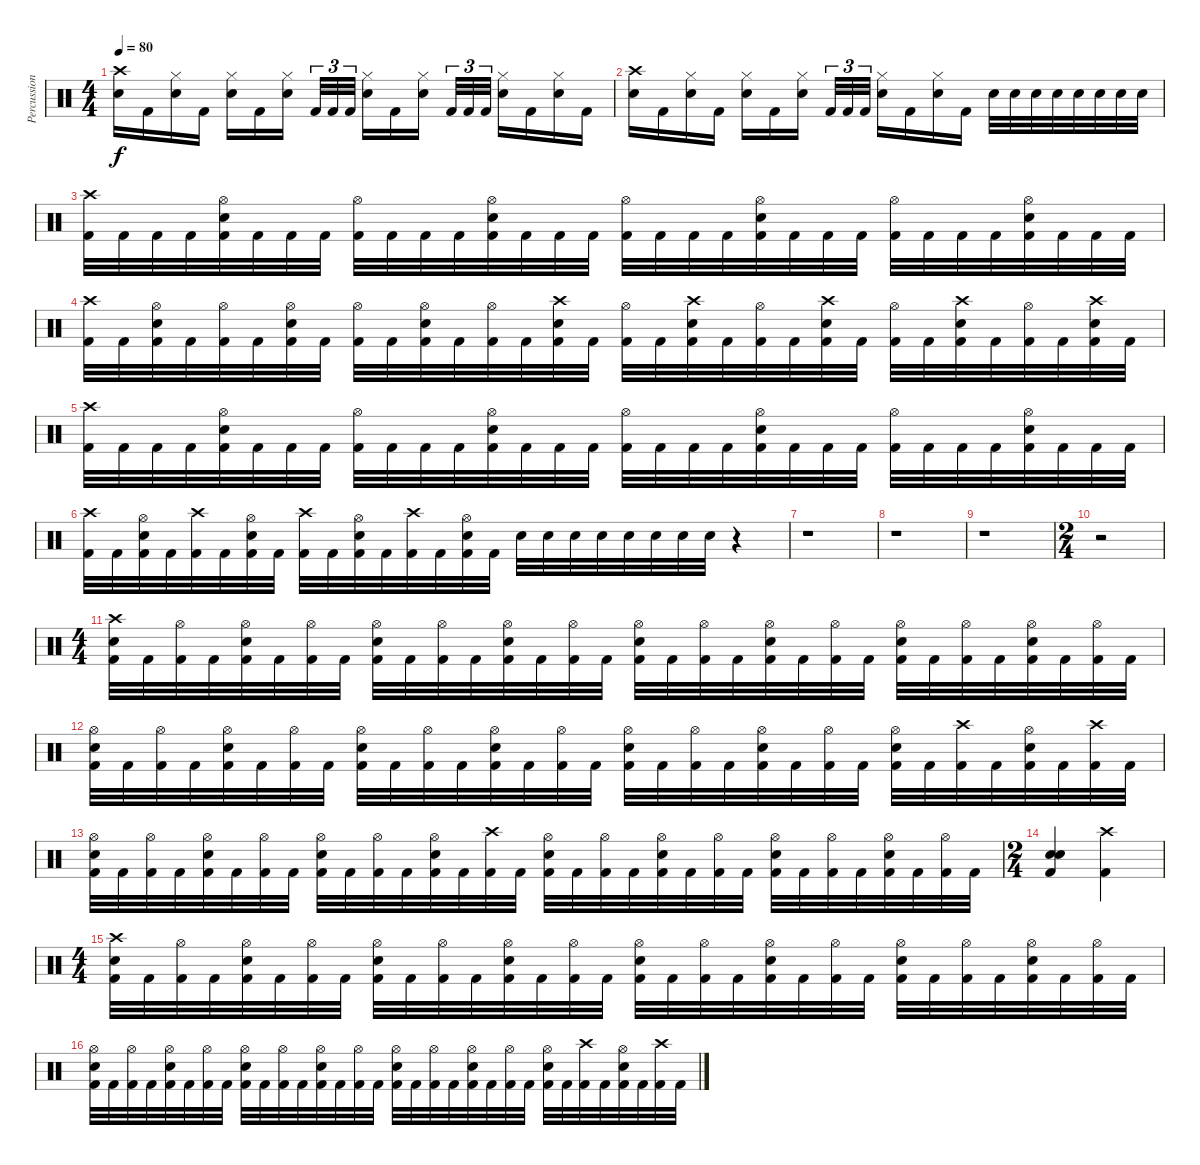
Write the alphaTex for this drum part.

\track ("Percussions" "Percussion") {instrument percussion}
\staff {score}
\articulation defaults
\ts (4 4)
\tempo 80
\clef neutral
\ks c
("Crash high (hit)" "Electric Snare (hit)").16{dy f} "Kick (hit) 2".16 ("Hi-Hat (closed)" "Electric Snare (hit)").16 "Kick (hit) 2".16 ("Hi-Hat (closed)" "Electric Snare (hit)").16 "Kick (hit) 2".16 ("Hi-Hat (closed)" "Electric Snare (hit)").16 "Kick (hit) 2".32{tu (3 2)} "Kick (hit) 2".32{tu (3 2)} "Kick (hit) 2".32{tu (3 2)} ("Hi-Hat (closed)" "Electric Snare (hit)").16 "Kick (hit) 2".16 ("Hi-Hat (closed)" "Electric Snare (hit)").16 "Kick (hit) 2".32{tu (3 2)} "Kick (hit) 2".32{tu (3 2)} "Kick (hit) 2".32{tu (3 2)} ("Hi-Hat (closed)" "Electric Snare (hit)").16 "Kick (hit) 2".16 ("Hi-Hat (closed)" "Electric Snare (hit)").16 "Kick (hit) 2".16 |
("Crash high (hit)" "Electric Snare (hit)").16 "Kick (hit) 2".16 ("Hi-Hat (closed)" "Electric Snare (hit)").16 "Kick (hit) 2".16 ("Hi-Hat (closed)" "Electric Snare (hit)").16 "Kick (hit) 2".16 ("Hi-Hat (closed)" "Electric Snare (hit)").16 "Kick (hit) 2".32{tu (3 2)} "Kick (hit) 2".32{tu (3 2)} "Kick (hit) 2".32{tu (3 2)} ("Hi-Hat (closed)" "Electric Snare (hit)").16 "Kick (hit) 2".16 ("Hi-Hat (closed)" "Electric Snare (hit)").16 "Kick (hit) 2".16 "Electric Snare (hit)".32 "Electric Snare (hit)".32 "Electric Snare (hit)".32 "Electric Snare (hit)".32 "Electric Snare (hit)".32 "Electric Snare (hit)".32 "Electric Snare (hit)".32 "Electric Snare (hit)".32 |
("Crash high (hit)" "Kick (hit) 2").32 "Kick (hit) 2".32 "Kick (hit) 2".32 "Kick (hit) 2".32 ("Hi-Hat (open)" "Electric Snare (hit)" "Kick (hit) 2").32 "Kick (hit) 2".32 "Kick (hit) 2".32 "Kick (hit) 2".32 ("Hi-Hat (open)" "Kick (hit) 2").32 "Kick (hit) 2".32 "Kick (hit) 2".32 "Kick (hit) 2".32 ("Hi-Hat (open)" "Electric Snare (hit)" "Kick (hit) 2").32 "Kick (hit) 2".32 "Kick (hit) 2".32 "Kick (hit) 2".32 ("Hi-Hat (open)" "Kick (hit) 2").32 "Kick (hit) 2".32 "Kick (hit) 2".32 "Kick (hit) 2".32 ("Hi-Hat (open)" "Electric Snare (hit)" "Kick (hit) 2").32 "Kick (hit) 2".32 "Kick (hit) 2".32 "Kick (hit) 2".32 ("Hi-Hat (open)" "Kick (hit) 2").32 "Kick (hit) 2".32 "Kick (hit) 2".32 "Kick (hit) 2".32 ("Hi-Hat (open)" "Electric Snare (hit)" "Kick (hit) 2").32 "Kick (hit) 2".32 "Kick (hit) 2".32 "Kick (hit) 2".32 |
("Crash high (hit)" "Kick (hit) 2").32 "Kick (hit) 2".32 ("Hi-Hat (open)" "Electric Snare (hit)" "Kick (hit) 2").32 "Kick (hit) 2".32 ("Hi-Hat (open)" "Kick (hit) 2").32 "Kick (hit) 2".32 ("Hi-Hat (open)" "Electric Snare (hit)" "Kick (hit) 2").32 "Kick (hit) 2".32 ("Hi-Hat (open)" "Kick (hit) 2").32 "Kick (hit) 2".32 ("Hi-Hat (open)" "Electric Snare (hit)" "Kick (hit) 2").32 "Kick (hit) 2".32 ("Hi-Hat (open)" "Kick (hit) 2").32 "Kick (hit) 2".32 ("Crash high (hit)" "Electric Snare (hit)" "Kick (hit) 2").32 "Kick (hit) 2".32 ("Hi-Hat (open)" "Kick (hit) 2").32 "Kick (hit) 2".32 ("Crash high (hit)" "Electric Snare (hit)" "Kick (hit) 2").32 "Kick (hit) 2".32 ("Hi-Hat (open)" "Kick (hit) 2").32 "Kick (hit) 2".32 ("Crash high (hit)" "Electric Snare (hit)" "Kick (hit) 2").32 "Kick (hit) 2".32 ("Hi-Hat (open)" "Kick (hit) 2").32 "Kick (hit) 2".32 ("Crash high (hit)" "Electric Snare (hit)" "Kick (hit) 2").32 "Kick (hit) 2".32 ("Hi-Hat (open)" "Kick (hit) 2").32 "Kick (hit) 2".32 ("Crash high (hit)" "Electric Snare (hit)" "Kick (hit) 2").32 "Kick (hit) 2".32 |
("Crash high (hit)" "Kick (hit) 2").32 "Kick (hit) 2".32 "Kick (hit) 2".32 "Kick (hit) 2".32 ("Hi-Hat (open)" "Electric Snare (hit)" "Kick (hit) 2").32 "Kick (hit) 2".32 "Kick (hit) 2".32 "Kick (hit) 2".32 ("Hi-Hat (open)" "Kick (hit) 2").32 "Kick (hit) 2".32 "Kick (hit) 2".32 "Kick (hit) 2".32 ("Hi-Hat (open)" "Electric Snare (hit)" "Kick (hit) 2").32 "Kick (hit) 2".32 "Kick (hit) 2".32 "Kick (hit) 2".32 ("Hi-Hat (open)" "Kick (hit) 2").32 "Kick (hit) 2".32 "Kick (hit) 2".32 "Kick (hit) 2".32 ("Hi-Hat (open)" "Electric Snare (hit)" "Kick (hit) 2").32 "Kick (hit) 2".32 "Kick (hit) 2".32 "Kick (hit) 2".32 ("Hi-Hat (open)" "Kick (hit) 2").32 "Kick (hit) 2".32 "Kick (hit) 2".32 "Kick (hit) 2".32 ("Hi-Hat (open)" "Electric Snare (hit)" "Kick (hit) 2").32 "Kick (hit) 2".32 "Kick (hit) 2".32 "Kick (hit) 2".32 |
("Crash high (hit)" "Kick (hit) 2").32 "Kick (hit) 2".32 ("Hi-Hat (open)" "Electric Snare (hit)" "Kick (hit) 2").32 "Kick (hit) 2".32 ("Crash high (hit)" "Kick (hit) 2").32 "Kick (hit) 2".32 ("Hi-Hat (open)" "Electric Snare (hit)" "Kick (hit) 2").32 "Kick (hit) 2".32 ("Crash high (hit)" "Kick (hit) 2").32 "Kick (hit) 2".32 ("Hi-Hat (open)" "Electric Snare (hit)" "Kick (hit) 2").32 "Kick (hit) 2".32 ("Crash high (hit)" "Kick (hit) 2").32 "Kick (hit) 2".32 ("Hi-Hat (open)" "Electric Snare (hit)" "Kick (hit) 2").32 "Kick (hit) 2".32 "Electric Snare (hit)".32 "Electric Snare (hit)".32 "Electric Snare (hit)".32 "Electric Snare (hit)".32 "Electric Snare (hit)".32 "Electric Snare (hit)".32 "Electric Snare (hit)".32 "Electric Snare (hit)".32 r.4 |
r.1 |
r.1 |
r.1 |
\ts (2 4)
r.2 |
\ts (4 4)
("Crash high (hit)" "Electric Snare (hit)" "Kick (hit) 2").32 "Kick (hit) 2".32 ("Hi-Hat (open)" "Kick (hit) 2").32 "Kick (hit) 2".32 ("Hi-Hat (open)" "Electric Snare (hit)" "Kick (hit) 2").32 "Kick (hit) 2".32 ("Hi-Hat (open)" "Kick (hit) 2").32 "Kick (hit) 2".32 ("Hi-Hat (open)" "Electric Snare (hit)" "Kick (hit) 2").32 "Kick (hit) 2".32 ("Hi-Hat (open)" "Kick (hit) 2").32 "Kick (hit) 2".32 ("Hi-Hat (open)" "Electric Snare (hit)" "Kick (hit) 2").32 "Kick (hit) 2".32 ("Hi-Hat (open)" "Kick (hit) 2").32 "Kick (hit) 2".32 ("Hi-Hat (open)" "Electric Snare (hit)" "Kick (hit) 2").32 "Kick (hit) 2".32 ("Hi-Hat (open)" "Kick (hit) 2").32 "Kick (hit) 2".32 ("Hi-Hat (open)" "Electric Snare (hit)" "Kick (hit) 2").32 "Kick (hit) 2".32 ("Hi-Hat (open)" "Kick (hit) 2").32 "Kick (hit) 2".32 ("Hi-Hat (open)" "Electric Snare (hit)" "Kick (hit) 2").32 "Kick (hit) 2".32 ("Hi-Hat (open)" "Kick (hit) 2").32 "Kick (hit) 2".32 ("Hi-Hat (open)" "Electric Snare (hit)" "Kick (hit) 2").32 "Kick (hit) 2".32 ("Hi-Hat (open)" "Kick (hit) 2").32 "Kick (hit) 2".32 |
("Hi-Hat (open)" "Electric Snare (hit)" "Kick (hit) 2").32 "Kick (hit) 2".32 ("Hi-Hat (open)" "Kick (hit) 2").32 "Kick (hit) 2".32 ("Hi-Hat (open)" "Electric Snare (hit)" "Kick (hit) 2").32 "Kick (hit) 2".32 ("Hi-Hat (open)" "Kick (hit) 2").32 "Kick (hit) 2".32 ("Hi-Hat (open)" "Electric Snare (hit)" "Kick (hit) 2").32 "Kick (hit) 2".32 ("Hi-Hat (open)" "Kick (hit) 2").32 "Kick (hit) 2".32 ("Hi-Hat (open)" "Electric Snare (hit)" "Kick (hit) 2").32 "Kick (hit) 2".32 ("Hi-Hat (open)" "Kick (hit) 2").32 "Kick (hit) 2".32 ("Hi-Hat (open)" "Electric Snare (hit)" "Kick (hit) 2").32 "Kick (hit) 2".32 ("Hi-Hat (open)" "Kick (hit) 2").32 "Kick (hit) 2".32 ("Hi-Hat (open)" "Electric Snare (hit)" "Kick (hit) 2").32 "Kick (hit) 2".32 ("Hi-Hat (open)" "Kick (hit) 2").32 "Kick (hit) 2".32 ("Hi-Hat (open)" "Electric Snare (hit)" "Kick (hit) 2").32 "Kick (hit) 2".32 ("Crash high (hit)" "Kick (hit) 2").32 "Kick (hit) 2".32 ("Hi-Hat (open)" "Electric Snare (hit)" "Kick (hit) 2").32 "Kick (hit) 2".32 ("Crash high (hit)" "Kick (hit) 2").32 "Kick (hit) 2".32 |
("Hi-Hat (open)" "Electric Snare (hit)" "Kick (hit) 2").32 "Kick (hit) 2".32 ("Hi-Hat (open)" "Kick (hit) 2").32 "Kick (hit) 2".32 ("Hi-Hat (open)" "Electric Snare (hit)" "Kick (hit) 2").32 "Kick (hit) 2".32 ("Hi-Hat (open)" "Kick (hit) 2").32 "Kick (hit) 2".32 ("Hi-Hat (open)" "Electric Snare (hit)" "Kick (hit) 2").32 "Kick (hit) 2".32 ("Hi-Hat (open)" "Kick (hit) 2").32 "Kick (hit) 2".32 ("Hi-Hat (open)" "Electric Snare (hit)" "Kick (hit) 2").32 "Kick (hit) 2".32 ("Crash high (hit)" "Kick (hit) 2").32 "Kick (hit) 2".32 ("Hi-Hat (open)" "Electric Snare (hit)" "Kick (hit) 2").32 "Kick (hit) 2".32 ("Hi-Hat (open)" "Kick (hit) 2").32 "Kick (hit) 2".32 ("Hi-Hat (open)" "Electric Snare (hit)" "Kick (hit) 2").32 "Kick (hit) 2".32 ("Hi-Hat (open)" "Kick (hit) 2").32 "Kick (hit) 2".32 ("Hi-Hat (open)" "Electric Snare (hit)" "Kick (hit) 2").32 "Kick (hit) 2".32 ("Hi-Hat (open)" "Kick (hit) 2").32 "Kick (hit) 2".32 ("Hi-Hat (open)" "Electric Snare (hit)" "Kick (hit) 2").32 "Kick (hit) 2".32 ("Hi-Hat (open)" "Kick (hit) 2").32 "Kick (hit) 2".32 |
\ts (2 4)
("Electric Snare (hit)" "Electric Snare (hit)" "Kick (hit) 2").4 ("Crash high (hit)" "Kick (hit) 2").4 |
\ts (4 4)
("Crash high (hit)" "Electric Snare (hit)" "Kick (hit) 2").32 "Kick (hit) 2".32 ("Hi-Hat (open)" "Kick (hit) 2").32 "Kick (hit) 2".32 ("Hi-Hat (open)" "Electric Snare (hit)" "Kick (hit) 2").32 "Kick (hit) 2".32 ("Hi-Hat (open)" "Kick (hit) 2").32 "Kick (hit) 2".32 ("Hi-Hat (open)" "Electric Snare (hit)" "Kick (hit) 2").32 "Kick (hit) 2".32 ("Hi-Hat (open)" "Kick (hit) 2").32 "Kick (hit) 2".32 ("Hi-Hat (open)" "Electric Snare (hit)" "Kick (hit) 2").32 "Kick (hit) 2".32 ("Hi-Hat (open)" "Kick (hit) 2").32 "Kick (hit) 2".32 ("Hi-Hat (open)" "Electric Snare (hit)" "Kick (hit) 2").32 "Kick (hit) 2".32 ("Hi-Hat (open)" "Kick (hit) 2").32 "Kick (hit) 2".32 ("Hi-Hat (open)" "Electric Snare (hit)" "Kick (hit) 2").32 "Kick (hit) 2".32 ("Hi-Hat (open)" "Kick (hit) 2").32 "Kick (hit) 2".32 ("Hi-Hat (open)" "Electric Snare (hit)" "Kick (hit) 2").32 "Kick (hit) 2".32 ("Hi-Hat (open)" "Kick (hit) 2").32 "Kick (hit) 2".32 ("Hi-Hat (open)" "Electric Snare (hit)" "Kick (hit) 2").32 "Kick (hit) 2".32 ("Hi-Hat (open)" "Kick (hit) 2").32 "Kick (hit) 2".32 |
("Hi-Hat (open)" "Electric Snare (hit)" "Kick (hit) 2").32 "Kick (hit) 2".32 ("Hi-Hat (open)" "Kick (hit) 2").32 "Kick (hit) 2".32 ("Hi-Hat (open)" "Electric Snare (hit)" "Kick (hit) 2").32 "Kick (hit) 2".32 ("Hi-Hat (open)" "Kick (hit) 2").32 "Kick (hit) 2".32 ("Hi-Hat (open)" "Electric Snare (hit)" "Kick (hit) 2").32 "Kick (hit) 2".32 ("Hi-Hat (open)" "Kick (hit) 2").32 "Kick (hit) 2".32 ("Hi-Hat (open)" "Electric Snare (hit)" "Kick (hit) 2").32 "Kick (hit) 2".32 ("Hi-Hat (open)" "Kick (hit) 2").32 "Kick (hit) 2".32 ("Hi-Hat (open)" "Electric Snare (hit)" "Kick (hit) 2").32 "Kick (hit) 2".32 ("Hi-Hat (open)" "Kick (hit) 2").32 "Kick (hit) 2".32 ("Hi-Hat (open)" "Electric Snare (hit)" "Kick (hit) 2").32 "Kick (hit) 2".32 ("Hi-Hat (open)" "Kick (hit) 2").32 "Kick (hit) 2".32 ("Hi-Hat (open)" "Electric Snare (hit)" "Kick (hit) 2").32 "Kick (hit) 2".32 ("Crash high (hit)" "Kick (hit) 2").32 "Kick (hit) 2".32 ("Hi-Hat (open)" "Electric Snare (hit)" "Kick (hit) 2").32 "Kick (hit) 2".32 ("Crash high (hit)" "Kick (hit) 2").32 "Kick (hit) 2".32
